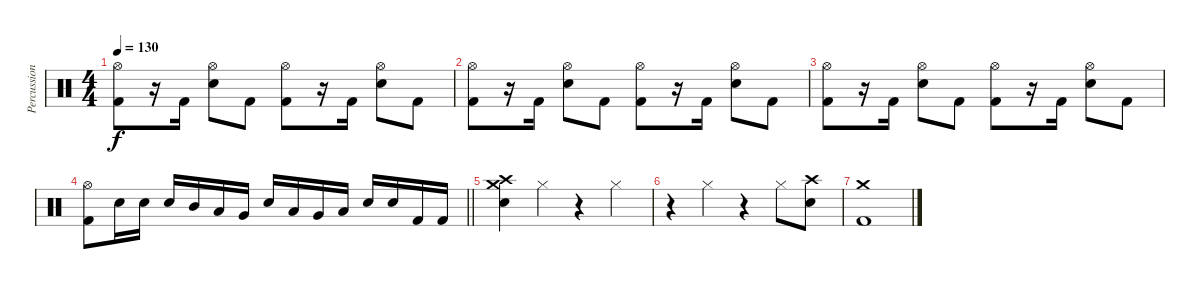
\track ("Percussion" "Percussion") {instrument percussion}
\staff {score}
\articulation defaults
\ts (4 4)
\tempo 130
\clef neutral
\ks c
("Hi-Hat (open)" "Kick (hit) 2").8{dy f} r.16 "Kick (hit) 2".16 ("Hi-Hat (open)" "Snare (hit) 2").8 "Kick (hit) 2".8 ("Hi-Hat (open)" "Kick (hit) 2").8 r.16 "Kick (hit) 2".16 ("Hi-Hat (open)" "Snare (hit) 2").8 "Kick (hit) 2".8 |
("Hi-Hat (open)" "Kick (hit) 2").8 r.16 "Kick (hit) 2".16 ("Hi-Hat (open)" "Snare (hit) 2").8 "Kick (hit) 2".8 ("Hi-Hat (open)" "Kick (hit) 2").8 r.16 "Kick (hit) 2".16 ("Hi-Hat (open)" "Snare (hit) 2").8 "Kick (hit) 2".8 |
("Hi-Hat (open)" "Kick (hit) 2").8 r.16 "Kick (hit) 2".16 ("Hi-Hat (open)" "Snare (hit) 2").8 "Kick (hit) 2".8 ("Hi-Hat (open)" "Kick (hit) 2").8 r.16 "Kick (hit) 2".16 ("Hi-Hat (open)" "Snare (hit) 2").8 "Kick (hit) 2".8 |
\barLineRight lightlight
("Hi-Hat (open)" "Kick (hit) 2").8 "Snare (hit) 2".16 "Snare (hit) 2".16 "Snare (hit) 2".16 "Mid Tom (hit)".16 "Low Tom (hit)".16 "Very Low Tom (hit)".16 "Snare (hit) 2".16 "Low Tom (hit)".16 "Very Low Tom (hit)".16 "Low Floor Tom (hit)".16 "Snare (hit) 2".16 "Snare (hit) 2".16 "Kick (hit) 2".16 "Kick (hit) 2".16 |
("Crash high (hit)" "Crash medium (hit)" "Snare (hit) 2").4 "Hi-Hat (closed)".4 r.4 "Hi-Hat (closed)".4 |
r.4 "Hi-Hat (closed)".4 r.4 "Hi-Hat (closed)".8 ("Crash high (hit)" "Snare (hit) 2").8 |
("Crash medium (hit)" "Kick (hit) 2").1
